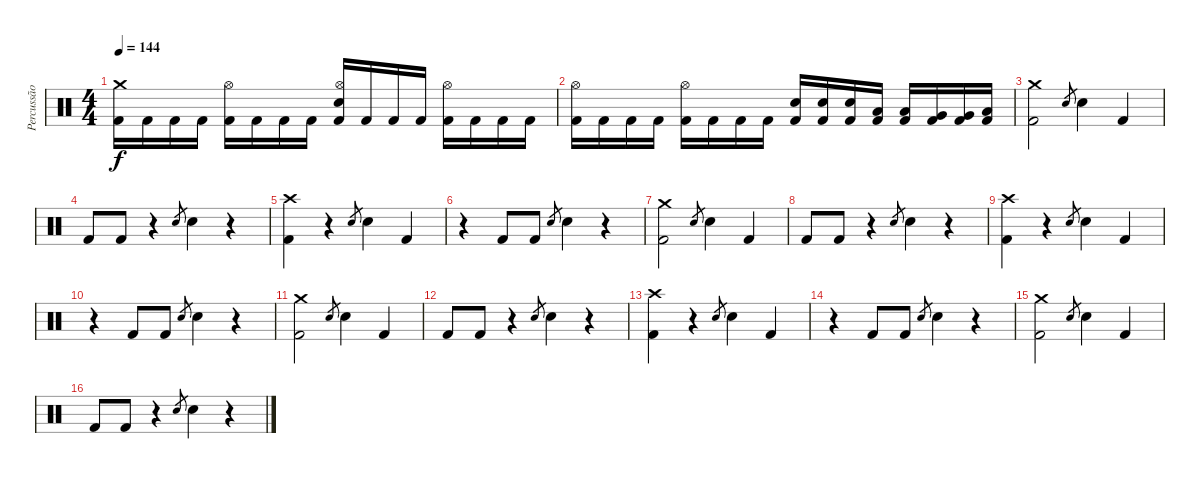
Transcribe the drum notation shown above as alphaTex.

\track ("Percussão" "Percussão") {instrument percussion}
\staff {score}
\articulation defaults
\ts (4 4)
\tempo 144
\clef neutral
\ks c
("Crash medium (hit)" "Kick (hit) 2").16{dy f} "Kick (hit) 2".16 "Kick (hit) 2".16 "Kick (hit) 2".16 ("Hi-Hat (open)" "Kick (hit) 2").16 "Kick (hit) 2".16 "Kick (hit) 2".16 "Kick (hit) 2".16 ("Hi-Hat (open)" "Electric Snare (hit)" "Kick (hit) 2").16 "Kick (hit) 2".16 "Kick (hit) 2".16 "Kick (hit) 2".16 ("Hi-Hat (open)" "Kick (hit) 2").16 "Kick (hit) 2".16 "Kick (hit) 2".16 "Kick (hit) 2".16 |
("Hi-Hat (open)" "Kick (hit) 2").16 "Kick (hit) 2".16 "Kick (hit) 2".16 "Kick (hit) 2".16 ("Hi-Hat (open)" "Kick (hit) 2").16 "Kick (hit) 2".16 "Kick (hit) 2".16 "Kick (hit) 2".16 ("Electric Snare (hit)" "Kick (hit) 2").16 ("Electric Snare (hit)" "Kick (hit) 2").16 ("Electric Snare (hit)" "Kick (hit) 2").16 ("Low Tom (hit)" "Kick (hit) 2").16 ("Low Tom (hit)" "Kick (hit) 2").16 ("Very Low Tom (hit)" "Kick (hit) 2").16 ("Very Low Tom (hit)" "Kick (hit) 2").16 ("Low Floor Tom (hit)" "Kick (hit) 2").16 |
("Crash medium (hit)" "Kick (hit) 2").2 "Electric Snare (hit)".8{gr} "Electric Snare (hit)".4 "Kick (hit) 2".4 |
"Kick (hit) 2".8 "Kick (hit) 2".8 r.4 "Electric Snare (hit)".8{gr} "Electric Snare (hit)".4 r.4 |
("Crash high (hit)" "Kick (hit) 2").4 r.4 "Electric Snare (hit)".8{gr} "Electric Snare (hit)".4 "Kick (hit) 2".4 |
r.4 "Kick (hit) 2".8 "Kick (hit) 2".8 "Electric Snare (hit)".8{gr} "Electric Snare (hit)".4 r.4 |
("Crash medium (hit)" "Kick (hit) 2").2 "Electric Snare (hit)".8{gr} "Electric Snare (hit)".4 "Kick (hit) 2".4 |
"Kick (hit) 2".8 "Kick (hit) 2".8 r.4 "Electric Snare (hit)".8{gr} "Electric Snare (hit)".4 r.4 |
("Crash high (hit)" "Kick (hit) 2").4 r.4 "Electric Snare (hit)".8{gr} "Electric Snare (hit)".4 "Kick (hit) 2".4 |
r.4 "Kick (hit) 2".8 "Kick (hit) 2".8 "Electric Snare (hit)".8{gr} "Electric Snare (hit)".4 r.4 |
("Crash medium (hit)" "Kick (hit) 2").2 "Electric Snare (hit)".8{gr} "Electric Snare (hit)".4 "Kick (hit) 2".4 |
"Kick (hit) 2".8 "Kick (hit) 2".8 r.4 "Electric Snare (hit)".8{gr} "Electric Snare (hit)".4 r.4 |
("Crash high (hit)" "Kick (hit) 2").4 r.4 "Electric Snare (hit)".8{gr} "Electric Snare (hit)".4 "Kick (hit) 2".4 |
r.4 "Kick (hit) 2".8 "Kick (hit) 2".8 "Electric Snare (hit)".8{gr} "Electric Snare (hit)".4 r.4 |
("Crash medium (hit)" "Kick (hit) 2").2 "Electric Snare (hit)".8{gr} "Electric Snare (hit)".4 "Kick (hit) 2".4 |
"Kick (hit) 2".8 "Kick (hit) 2".8 r.4 "Electric Snare (hit)".8{gr} "Electric Snare (hit)".4 r.4
